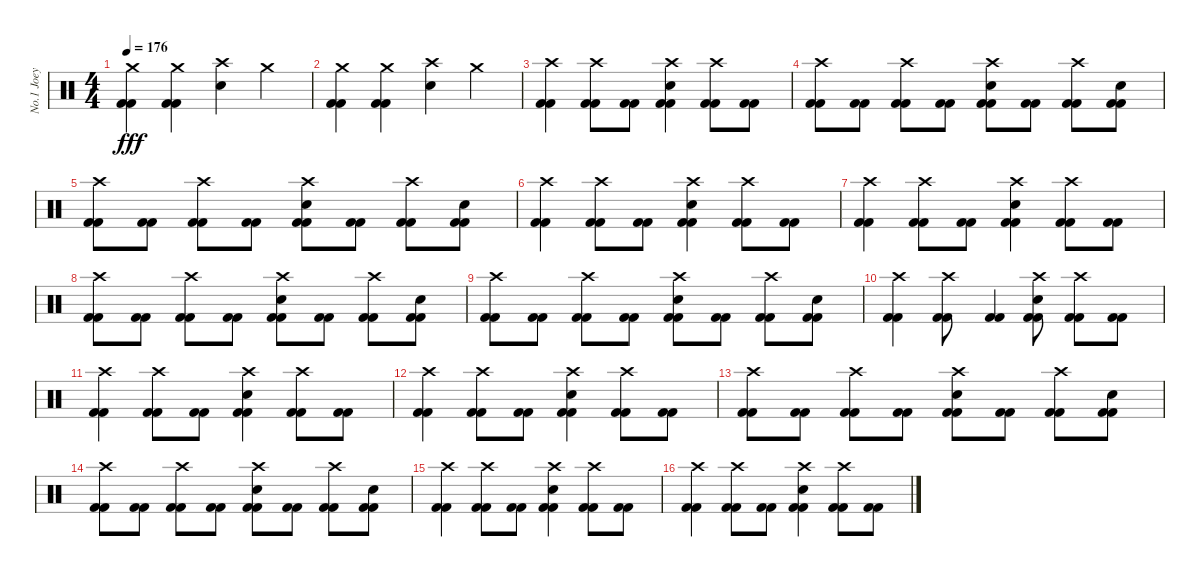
\track ("No.1 Joey" "No.1 Joey") {instrument percussion}
\staff {score}
\articulation defaults
\ts (4 4)
\tempo 176
\clef neutral
\ks c
("Crash medium (hit)" "Kick (hit) 2" "Kick (hit) 2").4{dy fff} ("Crash medium (hit)" "Kick (hit) 2" "Kick (hit) 2").4 ("Electric Snare (hit)" "Crash high (hit)").4 "Crash medium (hit)".4 |
("Crash medium (hit)" "Kick (hit) 2" "Kick (hit) 2").4 ("Crash medium (hit)" "Kick (hit) 2" "Kick (hit) 2").4 ("Electric Snare (hit)" "Crash high (hit)").4 "Crash medium (hit)".4 |
("Crash high (hit)" "Kick (hit) 2" "Kick (hit) 2").4 ("Crash high (hit)" "Kick (hit) 2" "Kick (hit) 2").8 ("Kick (hit) 2" "Kick (hit) 2").8 ("Electric Snare (hit)" "Crash high (hit)" "Kick (hit) 2" "Kick (hit) 2").4 ("Crash high (hit)" "Kick (hit) 2" "Kick (hit) 2").8 ("Kick (hit) 2" "Kick (hit) 2").8 |
("Crash high (hit)" "Kick (hit) 2" "Kick (hit) 2").8 ("Kick (hit) 2" "Kick (hit) 2").8 ("Crash high (hit)" "Kick (hit) 2" "Kick (hit) 2").8 ("Kick (hit) 2" "Kick (hit) 2").8 ("Electric Snare (hit)" "Crash high (hit)" "Kick (hit) 2" "Kick (hit) 2").8 ("Kick (hit) 2" "Kick (hit) 2").8 ("Crash high (hit)" "Kick (hit) 2" "Kick (hit) 2").8 ("Electric Snare (hit)" "Kick (hit) 2" "Kick (hit) 2").8 |
("Crash high (hit)" "Kick (hit) 2" "Kick (hit) 2").8 ("Kick (hit) 2" "Kick (hit) 2").8 ("Crash high (hit)" "Kick (hit) 2" "Kick (hit) 2").8 ("Kick (hit) 2" "Kick (hit) 2").8 ("Electric Snare (hit)" "Crash high (hit)" "Kick (hit) 2" "Kick (hit) 2").8 ("Kick (hit) 2" "Kick (hit) 2").8 ("Crash high (hit)" "Kick (hit) 2" "Kick (hit) 2").8 ("Electric Snare (hit)" "Kick (hit) 2" "Kick (hit) 2").8 |
("Crash high (hit)" "Kick (hit) 2" "Kick (hit) 2").4 ("Crash high (hit)" "Kick (hit) 2" "Kick (hit) 2").8 ("Kick (hit) 2" "Kick (hit) 2").8 ("Electric Snare (hit)" "Crash high (hit)" "Kick (hit) 2" "Kick (hit) 2").4 ("Crash high (hit)" "Kick (hit) 2" "Kick (hit) 2").8 ("Kick (hit) 2" "Kick (hit) 2").8 |
("Crash high (hit)" "Kick (hit) 2" "Kick (hit) 2").4 ("Crash high (hit)" "Kick (hit) 2" "Kick (hit) 2").8 ("Kick (hit) 2" "Kick (hit) 2").8 ("Electric Snare (hit)" "Crash high (hit)" "Kick (hit) 2" "Kick (hit) 2").4 ("Crash high (hit)" "Kick (hit) 2" "Kick (hit) 2").8 ("Kick (hit) 2" "Kick (hit) 2").8 |
("Crash high (hit)" "Kick (hit) 2" "Kick (hit) 2").8 ("Kick (hit) 2" "Kick (hit) 2").8 ("Crash high (hit)" "Kick (hit) 2" "Kick (hit) 2").8 ("Kick (hit) 2" "Kick (hit) 2").8 ("Electric Snare (hit)" "Crash high (hit)" "Kick (hit) 2" "Kick (hit) 2").8 ("Kick (hit) 2" "Kick (hit) 2").8 ("Crash high (hit)" "Kick (hit) 2" "Kick (hit) 2").8 ("Electric Snare (hit)" "Kick (hit) 2" "Kick (hit) 2").8 |
("Crash high (hit)" "Kick (hit) 2" "Kick (hit) 2").8 ("Kick (hit) 2" "Kick (hit) 2").8 ("Crash high (hit)" "Kick (hit) 2" "Kick (hit) 2").8 ("Kick (hit) 2" "Kick (hit) 2").8 ("Electric Snare (hit)" "Crash high (hit)" "Kick (hit) 2" "Kick (hit) 2").8 ("Kick (hit) 2" "Kick (hit) 2").8 ("Crash high (hit)" "Kick (hit) 2" "Kick (hit) 2").8 ("Electric Snare (hit)" "Kick (hit) 2" "Kick (hit) 2").8 |
("Crash high (hit)" "Kick (hit) 2" "Kick (hit) 2").4 ("Crash high (hit)" "Kick (hit) 2" "Kick (hit) 2").8 ("Kick (hit) 2" "Kick (hit) 2").4 ("Electric Snare (hit)" "Crash high (hit)" "Kick (hit) 2" "Kick (hit) 2").8 ("Crash high (hit)" "Kick (hit) 2" "Kick (hit) 2").8 ("Kick (hit) 2" "Kick (hit) 2").8 |
("Crash high (hit)" "Kick (hit) 2" "Kick (hit) 2").4 ("Crash high (hit)" "Kick (hit) 2" "Kick (hit) 2").8 ("Kick (hit) 2" "Kick (hit) 2").8 ("Electric Snare (hit)" "Crash high (hit)" "Kick (hit) 2" "Kick (hit) 2").4 ("Crash high (hit)" "Kick (hit) 2" "Kick (hit) 2").8 ("Kick (hit) 2" "Kick (hit) 2").8 |
("Crash high (hit)" "Kick (hit) 2" "Kick (hit) 2").4 ("Crash high (hit)" "Kick (hit) 2" "Kick (hit) 2").8 ("Kick (hit) 2" "Kick (hit) 2").8 ("Electric Snare (hit)" "Crash high (hit)" "Kick (hit) 2" "Kick (hit) 2").4 ("Crash high (hit)" "Kick (hit) 2" "Kick (hit) 2").8 ("Kick (hit) 2" "Kick (hit) 2").8 |
("Crash high (hit)" "Kick (hit) 2" "Kick (hit) 2").8 ("Kick (hit) 2" "Kick (hit) 2").8 ("Crash high (hit)" "Kick (hit) 2" "Kick (hit) 2").8 ("Kick (hit) 2" "Kick (hit) 2").8 ("Electric Snare (hit)" "Crash high (hit)" "Kick (hit) 2" "Kick (hit) 2").8 ("Kick (hit) 2" "Kick (hit) 2").8 ("Crash high (hit)" "Kick (hit) 2" "Kick (hit) 2").8 ("Electric Snare (hit)" "Kick (hit) 2" "Kick (hit) 2").8 |
("Crash high (hit)" "Kick (hit) 2" "Kick (hit) 2").8 ("Kick (hit) 2" "Kick (hit) 2").8 ("Crash high (hit)" "Kick (hit) 2" "Kick (hit) 2").8 ("Kick (hit) 2" "Kick (hit) 2").8 ("Electric Snare (hit)" "Crash high (hit)" "Kick (hit) 2" "Kick (hit) 2").8 ("Kick (hit) 2" "Kick (hit) 2").8 ("Crash high (hit)" "Kick (hit) 2" "Kick (hit) 2").8 ("Electric Snare (hit)" "Kick (hit) 2" "Kick (hit) 2").8 |
("Crash high (hit)" "Kick (hit) 2" "Kick (hit) 2").4 ("Crash high (hit)" "Kick (hit) 2" "Kick (hit) 2").8 ("Kick (hit) 2" "Kick (hit) 2").8 ("Electric Snare (hit)" "Crash high (hit)" "Kick (hit) 2" "Kick (hit) 2").4 ("Crash high (hit)" "Kick (hit) 2" "Kick (hit) 2").8 ("Kick (hit) 2" "Kick (hit) 2").8 |
("Crash high (hit)" "Kick (hit) 2" "Kick (hit) 2").4 ("Crash high (hit)" "Kick (hit) 2" "Kick (hit) 2").8 ("Kick (hit) 2" "Kick (hit) 2").8 ("Electric Snare (hit)" "Crash high (hit)" "Kick (hit) 2" "Kick (hit) 2").4 ("Crash high (hit)" "Kick (hit) 2" "Kick (hit) 2").8 ("Kick (hit) 2" "Kick (hit) 2").8
